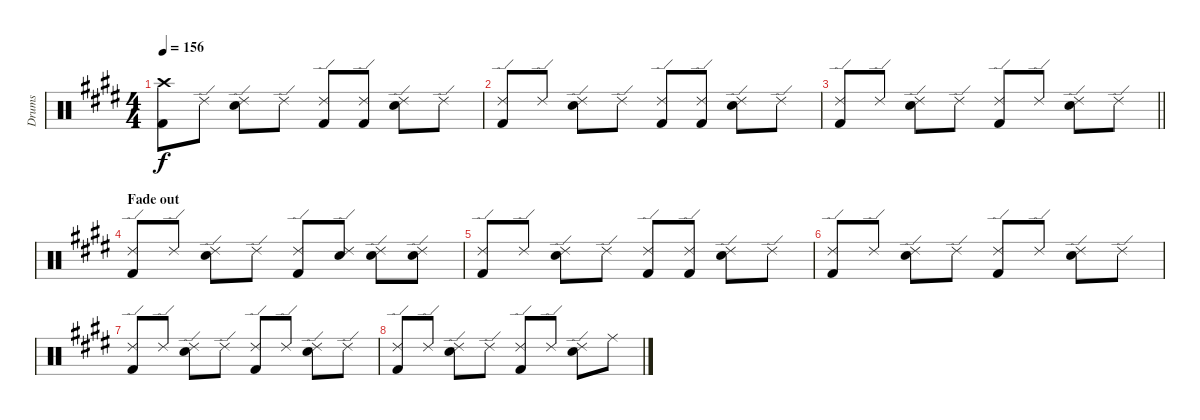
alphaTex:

\track ("Drums" "Drums") {instrument percussion}
\staff {score}
\articulation defaults
\ts (4 4)
\tempo 156
\clef neutral
\ks c#minor
("Crash high (hit)" "Kick (hit) 2").8{dy f} "Ride (edge) 2".8 ("Ride (edge) 2" "Electric Snare (hit)").8 "Ride (edge) 2".8 ("Ride (edge) 2" "Kick (hit) 2").8 ("Ride (edge) 2" "Kick (hit) 2").8 ("Ride (edge) 2" "Electric Snare (hit)").8 "Ride (edge) 2".8 |
\ks e
("Ride (edge) 2" "Kick (hit) 2").8 "Ride (edge) 2".8 ("Ride (edge) 2" "Electric Snare (hit)").8 "Ride (edge) 2".8 ("Ride (edge) 2" "Kick (hit) 2").8 ("Ride (edge) 2" "Kick (hit) 2").8 ("Ride (edge) 2" "Electric Snare (hit)").8 "Ride (edge) 2".8 |
\barLineRight lightlight
\ks c#minor
("Ride (edge) 2" "Kick (hit) 2").8 "Ride (edge) 2".8 ("Ride (edge) 2" "Electric Snare (hit)").8 "Ride (edge) 2".8 ("Ride (edge) 2" "Kick (hit) 2").8 "Ride (edge) 2".8 ("Ride (edge) 2" "Electric Snare (hit)").8 "Ride (edge) 2".8 |
\section ("" "Fade out")
("Ride (edge) 2" "Kick (hit) 2").8 "Ride (edge) 2".8 ("Ride (edge) 2" "Electric Snare (hit)").8 "Ride (edge) 2".8 ("Ride (edge) 2" "Kick (hit) 2").8 ("Ride (edge) 2" "Electric Snare (hit)").8 ("Ride (edge) 2" "Electric Snare (hit)").8 ("Ride (edge) 2" "Electric Snare (hit)").8 |
("Ride (edge) 2" "Kick (hit) 2").8 "Ride (edge) 2".8 ("Ride (edge) 2" "Electric Snare (hit)").8 "Ride (edge) 2".8 ("Ride (edge) 2" "Kick (hit) 2").8 ("Ride (edge) 2" "Kick (hit) 2").8 ("Ride (edge) 2" "Electric Snare (hit)").8 "Ride (edge) 2".8 |
\ks e
("Ride (edge) 2" "Kick (hit) 2").8 "Ride (edge) 2".8 ("Ride (edge) 2" "Electric Snare (hit)").8 "Ride (edge) 2".8 ("Ride (edge) 2" "Kick (hit) 2").8 "Ride (edge) 2".8 ("Ride (edge) 2" "Electric Snare (hit)").8 "Ride (edge) 2".8 |
\ks c#minor
("Ride (edge) 2" "Kick (hit) 2").8 "Ride (edge) 2".8 ("Ride (edge) 2" "Electric Snare (hit)").8 "Ride (edge) 2".8 ("Ride (edge) 2" "Kick (hit) 2").8 "Ride (edge) 2".8 ("Ride (edge) 2" "Electric Snare (hit)").8 "Ride (edge) 2".8 |
("Ride (edge) 2" "Kick (hit) 2").8 "Ride (edge) 2".8 ("Ride (edge) 2" "Electric Snare (hit)").8 "Ride (edge) 2".8 ("Ride (edge) 2" "Kick (hit) 2").8 "Ride (edge) 2".8 ("Ride (edge) 2" "Electric Snare (hit)").8 "Ride (middle)".8
